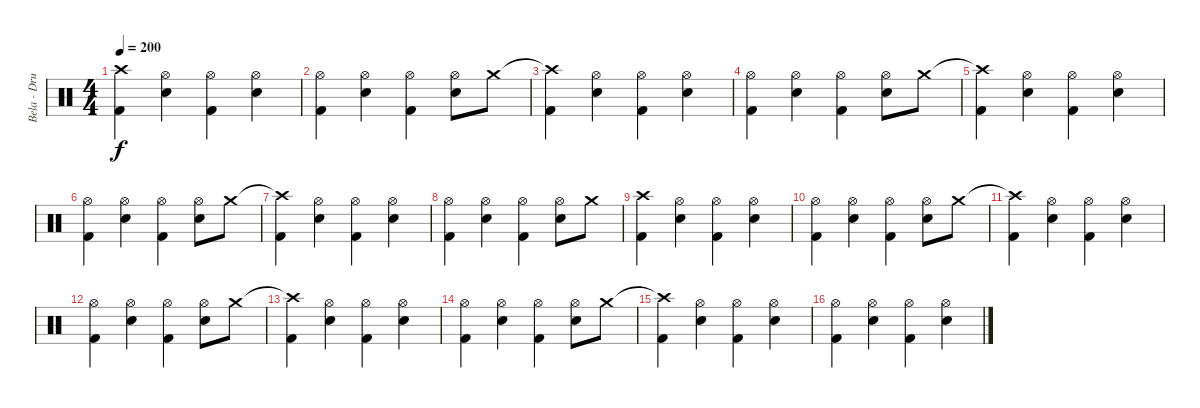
\track ("Bela - Drums" "Bela - Dru") {instrument percussion}
\staff {score}
\articulation defaults
\ts (4 4)
\tempo 200
\clef neutral
\ks c
("Crash high (hit)" "Kick (hit) 2").4{dy f} ("Hi-Hat (open)" "Snare (hit) 2").4 ("Hi-Hat (open)" "Kick (hit) 2").4 ("Hi-Hat (open)" "Snare (hit) 2").4 |
("Hi-Hat (open)" "Kick (hit) 2").4 ("Hi-Hat (open)" "Snare (hit) 2").4 ("Hi-Hat (open)" "Kick (hit) 2").4 ("Hi-Hat (open)" "Snare (hit) 2").8 "Crash medium (hit)".8 |
("Crash high (hit)"{t} "Kick (hit) 2").4 ("Hi-Hat (open)" "Snare (hit) 2").4 ("Hi-Hat (open)" "Kick (hit) 2").4 ("Hi-Hat (open)" "Snare (hit) 2").4 |
("Hi-Hat (open)" "Kick (hit) 2").4 ("Hi-Hat (open)" "Snare (hit) 2").4 ("Hi-Hat (open)" "Kick (hit) 2").4 ("Hi-Hat (open)" "Snare (hit) 2").8 "Crash medium (hit)".8 |
("Crash high (hit)"{t} "Kick (hit) 2").4 ("Hi-Hat (open)" "Snare (hit) 2").4 ("Hi-Hat (open)" "Kick (hit) 2").4 ("Hi-Hat (open)" "Snare (hit) 2").4 |
("Hi-Hat (open)" "Kick (hit) 2").4 ("Hi-Hat (open)" "Snare (hit) 2").4 ("Hi-Hat (open)" "Kick (hit) 2").4 ("Hi-Hat (open)" "Snare (hit) 2").8 "Crash medium (hit)".8 |
("Crash high (hit)"{t} "Kick (hit) 2").4 ("Hi-Hat (open)" "Snare (hit) 2").4 ("Hi-Hat (open)" "Kick (hit) 2").4 ("Hi-Hat (open)" "Snare (hit) 2").4 |
("Hi-Hat (open)" "Kick (hit) 2").4 ("Hi-Hat (open)" "Snare (hit) 2").4 ("Hi-Hat (open)" "Kick (hit) 2").4 ("Hi-Hat (open)" "Snare (hit) 2").8 "Crash medium (hit)".8 |
("Crash high (hit)" "Kick (hit) 2").4 ("Hi-Hat (open)" "Snare (hit) 2").4 ("Hi-Hat (open)" "Kick (hit) 2").4 ("Hi-Hat (open)" "Snare (hit) 2").4 |
("Hi-Hat (open)" "Kick (hit) 2").4 ("Hi-Hat (open)" "Snare (hit) 2").4 ("Hi-Hat (open)" "Kick (hit) 2").4 ("Hi-Hat (open)" "Snare (hit) 2").8 "Crash medium (hit)".8 |
("Crash high (hit)"{t} "Kick (hit) 2").4 ("Hi-Hat (open)" "Snare (hit) 2").4 ("Hi-Hat (open)" "Kick (hit) 2").4 ("Hi-Hat (open)" "Snare (hit) 2").4 |
("Hi-Hat (open)" "Kick (hit) 2").4 ("Hi-Hat (open)" "Snare (hit) 2").4 ("Hi-Hat (open)" "Kick (hit) 2").4 ("Hi-Hat (open)" "Snare (hit) 2").8 "Crash medium (hit)".8 |
("Crash high (hit)"{t} "Kick (hit) 2").4 ("Hi-Hat (open)" "Snare (hit) 2").4 ("Hi-Hat (open)" "Kick (hit) 2").4 ("Hi-Hat (open)" "Snare (hit) 2").4 |
("Hi-Hat (open)" "Kick (hit) 2").4 ("Hi-Hat (open)" "Snare (hit) 2").4 ("Hi-Hat (open)" "Kick (hit) 2").4 ("Hi-Hat (open)" "Snare (hit) 2").8 "Crash medium (hit)".8 |
("Crash high (hit)"{t} "Kick (hit) 2").4 ("Hi-Hat (open)" "Snare (hit) 2").4 ("Hi-Hat (open)" "Kick (hit) 2").4 ("Hi-Hat (open)" "Snare (hit) 2").4 |
("Hi-Hat (open)" "Kick (hit) 2").4 ("Hi-Hat (open)" "Snare (hit) 2").4 ("Hi-Hat (open)" "Kick (hit) 2").4 ("Hi-Hat (open)" "Snare (hit) 2").4
